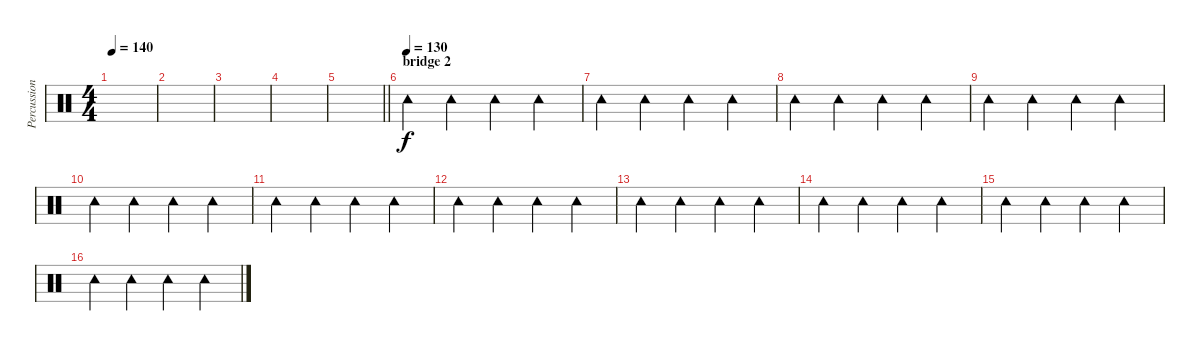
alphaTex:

\track ("Percussion" "Percussion") {instrument percussion}
\staff {score}
\articulation defaults
\ts (4 4)
\tempo 140
\clef neutral
\ks c
|
|
|
|
\barLineRight lightlight
|
\section ("" "bridge 2")
\tempo (130)
"Tambourine (hit)".4 "Tambourine (hit)".4 "Tambourine (hit)".4 "Tambourine (hit)".4 |
"Tambourine (hit)".4 "Tambourine (hit)".4 "Tambourine (hit)".4 "Tambourine (hit)".4 |
"Tambourine (hit)".4 "Tambourine (hit)".4 "Tambourine (hit)".4 "Tambourine (hit)".4 |
"Tambourine (hit)".4 "Tambourine (hit)".4 "Tambourine (hit)".4 "Tambourine (hit)".4 |
"Tambourine (hit)".4 "Tambourine (hit)".4 "Tambourine (hit)".4 "Tambourine (hit)".4 |
"Tambourine (hit)".4 "Tambourine (hit)".4 "Tambourine (hit)".4 "Tambourine (hit)".4 |
"Tambourine (hit)".4 "Tambourine (hit)".4 "Tambourine (hit)".4 "Tambourine (hit)".4 |
"Tambourine (hit)".4 "Tambourine (hit)".4 "Tambourine (hit)".4 "Tambourine (hit)".4 |
"Tambourine (hit)".4 "Tambourine (hit)".4 "Tambourine (hit)".4 "Tambourine (hit)".4 |
"Tambourine (hit)".4 "Tambourine (hit)".4 "Tambourine (hit)".4 "Tambourine (hit)".4 |
"Tambourine (hit)".4 "Tambourine (hit)".4 "Tambourine (hit)".4 "Tambourine (hit)".4
